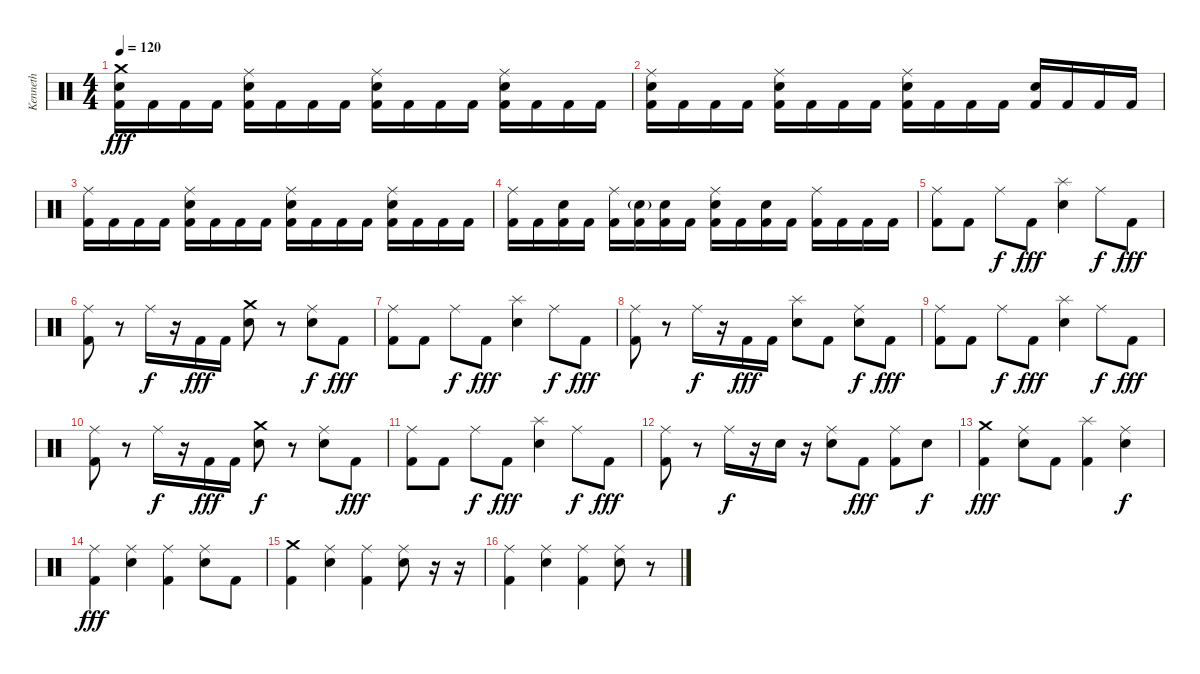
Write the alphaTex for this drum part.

\track ("Kenneth" "Kenneth") {instrument percussion}
\staff {score}
\articulation defaults
\ts (4 4)
\tempo 120
\clef neutral
\ks c
("Crash medium (hit)" "Electric Snare (hit)" "Kick (hit) 2").16{dy fff} "Kick (hit) 2".16 "Kick (hit) 2".16 "Kick (hit) 2".16 ("Ride (middle)" "Electric Snare (hit)" "Kick (hit) 2").16 "Kick (hit) 2".16 "Kick (hit) 2".16 "Kick (hit) 2".16 ("Ride (middle)" "Electric Snare (hit)" "Kick (hit) 2").16 "Kick (hit) 2".16 "Kick (hit) 2".16 "Kick (hit) 2".16 ("Ride (middle)" "Electric Snare (hit)" "Kick (hit) 2").16 "Kick (hit) 2".16 "Kick (hit) 2".16 "Kick (hit) 2".16 |
("Ride (middle)" "Electric Snare (hit)" "Kick (hit) 2").16 "Kick (hit) 2".16 "Kick (hit) 2".16 "Kick (hit) 2".16 ("Ride (middle)" "Electric Snare (hit)" "Kick (hit) 2").16 "Kick (hit) 2".16 "Kick (hit) 2".16 "Kick (hit) 2".16 ("Ride (middle)" "Electric Snare (hit)" "Kick (hit) 2").16 "Kick (hit) 2".16 "Kick (hit) 2".16 "Kick (hit) 2".16 ("Electric Snare (hit)" "Kick (hit) 2").16 "Kick (hit) 2".16 "Kick (hit) 2".16 "Kick (hit) 2".16 |
("Ride (middle)" "Kick (hit) 2").16 "Kick (hit) 2".16 "Kick (hit) 2".16 "Kick (hit) 2".16 ("Ride (middle)" "Electric Snare (hit)" "Kick (hit) 2").16 "Kick (hit) 2".16 "Kick (hit) 2".16 "Kick (hit) 2".16 ("Ride (middle)" "Electric Snare (hit)" "Kick (hit) 2").16 "Kick (hit) 2".16 "Kick (hit) 2".16 "Kick (hit) 2".16 ("Ride (middle)" "Electric Snare (hit)" "Kick (hit) 2").16 "Kick (hit) 2".16 "Kick (hit) 2".16 "Kick (hit) 2".16 |
("Ride (middle)" "Kick (hit) 2").16 "Kick (hit) 2".16 ("Electric Snare (hit)" "Kick (hit) 2").16 "Kick (hit) 2".16 ("Ride (middle)" "Kick (hit) 2").16 ("Electric Snare (hit)"{g} "Kick (hit) 2").16 ("Electric Snare (hit)" "Kick (hit) 2").16 "Kick (hit) 2".16 ("Ride (middle)" "Electric Snare (hit)" "Kick (hit) 2").16 "Kick (hit) 2".16 ("Electric Snare (hit)" "Kick (hit) 2").16 "Kick (hit) 2".16 ("Ride (middle)" "Kick (hit) 2").16 "Kick (hit) 2".16 "Kick (hit) 2".16 "Kick (hit) 2".16 |
("Ride (middle)" "Kick (hit) 2").8 "Kick (hit) 2".8 "Ride (middle)".8{dy f} "Kick (hit) 2".8{dy fff} ("Splash (hit)" "Electric Snare (hit)").4 "Ride (middle)".8{dy f} "Kick (hit) 2".8{dy fff} |
("Ride (middle)" "Kick (hit) 2").8 r.8 "Ride (middle)".16{dy f} r.16 "Kick (hit) 2".16{dy fff} "Kick (hit) 2".16 ("Crash medium (hit)" "Electric Snare (hit)").8 r.8 ("Ride (middle)" "Electric Snare (hit)").8{dy f} "Kick (hit) 2".8{dy fff} |
("Ride (middle)" "Kick (hit) 2").8 "Kick (hit) 2".8 "Ride (middle)".8{dy f} "Kick (hit) 2".8{dy fff} ("Splash (hit)" "Electric Snare (hit)").4 "Ride (middle)".8{dy f} "Kick (hit) 2".8{dy fff} |
("Ride (middle)" "Kick (hit) 2").8 r.8 "Ride (middle)".16{dy f} r.16 "Kick (hit) 2".16{dy fff} "Kick (hit) 2".16 ("Splash (hit)" "Electric Snare (hit)").8 "Kick (hit) 2".8 ("Ride (middle)" "Electric Snare (hit)").8{dy f} "Kick (hit) 2".8{dy fff} |
("Ride (middle)" "Kick (hit) 2").8 "Kick (hit) 2".8 "Ride (middle)".8{dy f} "Kick (hit) 2".8{dy fff} ("Splash (hit)" "Electric Snare (hit)").4 "Ride (middle)".8{dy f} "Kick (hit) 2".8{dy fff} |
("Ride (middle)" "Kick (hit) 2").8 r.8 "Ride (middle)".16{dy f} r.16 "Kick (hit) 2".16{dy fff} "Kick (hit) 2".16 ("Crash medium (hit)" "Electric Snare (hit)").8{dy f} r.8 ("Ride (middle)" "Electric Snare (hit)").8 "Kick (hit) 2".8{dy fff} |
("Ride (middle)" "Kick (hit) 2").8 "Kick (hit) 2".8 "Ride (middle)".8{dy f} "Kick (hit) 2".8{dy fff} ("Splash (hit)" "Electric Snare (hit)").4 "Ride (middle)".8{dy f} "Kick (hit) 2".8{dy fff} |
("Ride (middle)" "Kick (hit) 2").8 r.8 "Ride (middle)".16{dy f} r.16 "Electric Snare (hit)".16 r.16 ("Ride (middle)" "Electric Snare (hit)").8 "Kick (hit) 2".8{dy fff} ("Ride (middle)" "Kick (hit) 2").8 "Electric Snare (hit)".8{dy f} |
("Crash medium (hit)" "Kick (hit) 2").4{dy fff} ("Ride (middle)" "Electric Snare (hit)").8 "Kick (hit) 2".8 ("Splash (hit)" "Kick (hit) 2").4 ("Ride (middle)" "Electric Snare (hit)").4{dy f} |
("Ride (middle)" "Kick (hit) 2").4{dy fff} ("Ride (middle)" "Electric Snare (hit)").4 ("Ride (middle)" "Kick (hit) 2").4 ("Ride (middle)" "Electric Snare (hit)").8 "Kick (hit) 2".8 |
("Crash medium (hit)" "Kick (hit) 2").4 ("Ride (middle)" "Electric Snare (hit)").4 ("Ride (middle)" "Kick (hit) 2").4 ("Ride (middle)" "Electric Snare (hit)").8 r.16 r.16 |
("Ride (middle)" "Kick (hit) 2").4 ("Ride (middle)" "Electric Snare (hit)").4 ("Ride (middle)" "Kick (hit) 2").4 ("Ride (middle)" "Electric Snare (hit)").8 r.8
